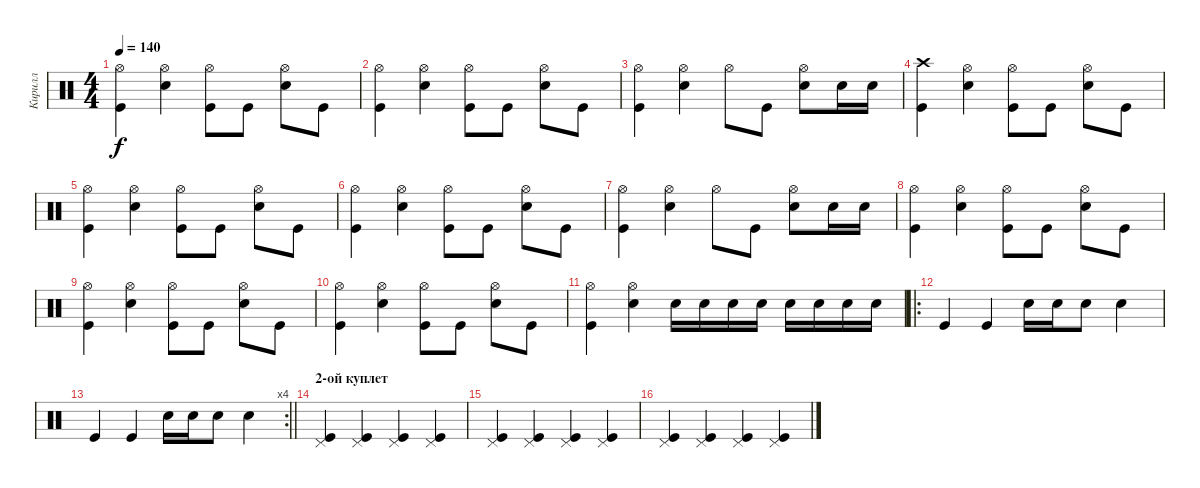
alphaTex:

\track ("Кирилл" "Кирилл") {instrument percussion}
\staff {score}
\articulation defaults
\ts (4 4)
\tempo 140
\clef neutral
\ks c
("Hi-Hat (open)" "Kick (hit)").4{dy f} ("Hi-Hat (open)" "Snare (hit) 2").4 ("Hi-Hat (open)" "Kick (hit)").8 "Kick (hit)".8 ("Hi-Hat (open)" "Snare (hit) 2").8 "Kick (hit)".8 |
("Hi-Hat (open)" "Kick (hit)").4 ("Hi-Hat (open)" "Snare (hit) 2").4 ("Hi-Hat (open)" "Kick (hit)").8 "Kick (hit)".8 ("Hi-Hat (open)" "Snare (hit) 2").8 "Kick (hit)".8 |
("Hi-Hat (open)" "Kick (hit)").4 ("Hi-Hat (open)" "Snare (hit) 2").4 "Hi-Hat (open)".8 "Kick (hit)".8 ("Hi-Hat (open)" "Snare (hit) 2").8 "Snare (hit) 2".16 "Snare (hit) 2".16 |
("Crash high (hit)" "Kick (hit)").4 ("Hi-Hat (open)" "Snare (hit) 2").4 ("Hi-Hat (open)" "Kick (hit)").8 "Kick (hit)".8 ("Hi-Hat (open)" "Snare (hit) 2").8 "Kick (hit)".8 |
("Hi-Hat (open)" "Kick (hit)").4 ("Hi-Hat (open)" "Snare (hit) 2").4 ("Hi-Hat (open)" "Kick (hit)").8 "Kick (hit)".8 ("Hi-Hat (open)" "Snare (hit) 2").8 "Kick (hit)".8 |
("Hi-Hat (open)" "Kick (hit)").4 ("Hi-Hat (open)" "Snare (hit) 2").4 ("Hi-Hat (open)" "Kick (hit)").8 "Kick (hit)".8 ("Hi-Hat (open)" "Snare (hit) 2").8 "Kick (hit)".8 |
("Hi-Hat (open)" "Kick (hit)").4 ("Hi-Hat (open)" "Snare (hit) 2").4 "Hi-Hat (open)".8 "Kick (hit)".8 ("Hi-Hat (open)" "Snare (hit) 2").8 "Snare (hit) 2".16 "Snare (hit) 2".16 |
("Hi-Hat (open)" "Kick (hit)").4 ("Hi-Hat (open)" "Snare (hit) 2").4 ("Hi-Hat (open)" "Kick (hit)").8 "Kick (hit)".8 ("Hi-Hat (open)" "Snare (hit) 2").8 "Kick (hit)".8 |
("Hi-Hat (open)" "Kick (hit)").4 ("Hi-Hat (open)" "Snare (hit) 2").4 ("Hi-Hat (open)" "Kick (hit)").8 "Kick (hit)".8 ("Hi-Hat (open)" "Snare (hit) 2").8 "Kick (hit)".8 |
("Hi-Hat (open)" "Kick (hit)").4 ("Hi-Hat (open)" "Snare (hit) 2").4 ("Hi-Hat (open)" "Kick (hit)").8 "Kick (hit)".8 ("Hi-Hat (open)" "Snare (hit) 2").8 "Kick (hit)".8 |
("Hi-Hat (open)" "Kick (hit)").4 ("Hi-Hat (open)" "Snare (hit) 2").4 "Snare (hit) 2".16 "Snare (hit) 2".16 "Snare (hit) 2".16 "Snare (hit) 2".16 "Snare (hit) 2".16 "Snare (hit) 2".16 "Snare (hit) 2".16 "Snare (hit) 2".16 |
\ro "Kick (hit)".4 "Kick (hit)".4 "Snare (hit) 2".16 "Snare (hit) 2".16 "Snare (hit) 2".8 "Snare (hit) 2".4
|
\rc 4
\barLineRight lightlight "Kick (hit)".4 "Kick (hit)".4 "Snare (hit) 2".16 "Snare (hit) 2".16 "Snare (hit) 2".8 "Snare (hit) 2".4
|
\section ("" "2-ой куплет")
("Pedal Hi-Hat (hit)" "Kick (hit)").4 ("Pedal Hi-Hat (hit)" "Kick (hit)").4 ("Pedal Hi-Hat (hit)" "Kick (hit)").4 ("Pedal Hi-Hat (hit)" "Kick (hit)").4 |
("Pedal Hi-Hat (hit)" "Kick (hit)").4 ("Pedal Hi-Hat (hit)" "Kick (hit)").4 ("Pedal Hi-Hat (hit)" "Kick (hit)").4 ("Pedal Hi-Hat (hit)" "Kick (hit)").4 |
("Pedal Hi-Hat (hit)" "Kick (hit)").4 ("Pedal Hi-Hat (hit)" "Kick (hit)").4 ("Pedal Hi-Hat (hit)" "Kick (hit)").4 ("Pedal Hi-Hat (hit)" "Kick (hit)").4
